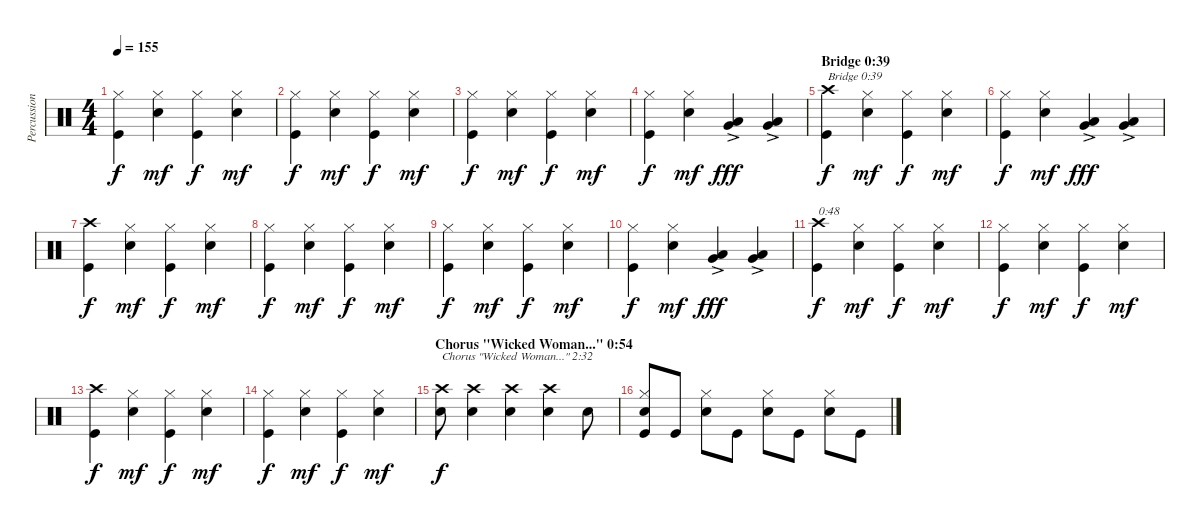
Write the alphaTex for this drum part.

\track ("Percussion" "Percussion") {instrument percussion}
\staff {score}
\articulation defaults
\ts (4 4)
\tempo 155
\clef neutral
\ks c
("Kick (hit)" "Hi-Hat (closed)").4{dy f} ("Electric Snare (hit)" "Hi-Hat (closed)").4{dy mf} ("Kick (hit)" "Hi-Hat (closed)").4{dy f} ("Electric Snare (hit)" "Hi-Hat (closed)").4{dy mf} |
("Kick (hit)" "Hi-Hat (closed)").4{dy f} ("Electric Snare (hit)" "Hi-Hat (closed)").4{dy mf} ("Kick (hit)" "Hi-Hat (closed)").4{dy f} ("Electric Snare (hit)" "Hi-Hat (closed)").4{dy mf} |
("Kick (hit)" "Hi-Hat (closed)").4{dy f} ("Electric Snare (hit)" "Hi-Hat (closed)").4{dy mf} ("Kick (hit)" "Hi-Hat (closed)").4{dy f} ("Electric Snare (hit)" "Hi-Hat (closed)").4{dy mf} |
("Kick (hit)" "Hi-Hat (closed)").4{dy f} ("Electric Snare (hit)" "Hi-Hat (closed)").4{dy mf} ("Very Low Tom (hit)"{ac} "Low Tom (hit)"{ac}).4{dy fff} ("Very Low Tom (hit)"{ac} "Low Tom (hit)"{ac}).4 |
\section ("" "Bridge 0:39")
("Kick (hit)" "Crash high (hit)").4{txt "Bridge 0:39" dy f} ("Electric Snare (hit)" "Hi-Hat (closed)").4{dy mf} ("Kick (hit)" "Hi-Hat (closed)").4{dy f} ("Electric Snare (hit)" "Hi-Hat (closed)").4{dy mf} |
("Kick (hit)" "Hi-Hat (closed)").4{dy f} ("Electric Snare (hit)" "Hi-Hat (closed)").4{dy mf} ("Very Low Tom (hit)"{ac} "Low Tom (hit)"{ac}).4{dy fff} ("Very Low Tom (hit)"{ac} "Low Tom (hit)"{ac}).4 |
("Kick (hit)" "Crash high (hit)").4{dy f} ("Electric Snare (hit)" "Hi-Hat (closed)").4{dy mf} ("Kick (hit)" "Hi-Hat (closed)").4{dy f} ("Electric Snare (hit)" "Hi-Hat (closed)").4{dy mf} |
("Kick (hit)" "Hi-Hat (closed)").4{dy f} ("Electric Snare (hit)" "Hi-Hat (closed)").4{dy mf} ("Kick (hit)" "Hi-Hat (closed)").4{dy f} ("Electric Snare (hit)" "Hi-Hat (closed)").4{dy mf} |
("Kick (hit)" "Hi-Hat (closed)").4{dy f} ("Electric Snare (hit)" "Hi-Hat (closed)").4{dy mf} ("Kick (hit)" "Hi-Hat (closed)").4{dy f} ("Electric Snare (hit)" "Hi-Hat (closed)").4{dy mf} |
("Kick (hit)" "Hi-Hat (closed)").4{dy f} ("Electric Snare (hit)" "Hi-Hat (closed)").4{dy mf} ("Very Low Tom (hit)"{ac} "Low Tom (hit)"{ac}).4{dy fff} ("Very Low Tom (hit)"{ac} "Low Tom (hit)"{ac}).4 |
("Kick (hit)" "Crash high (hit)").4{txt "0:48" dy f} ("Electric Snare (hit)" "Hi-Hat (closed)").4{dy mf} ("Kick (hit)" "Hi-Hat (closed)").4{dy f} ("Electric Snare (hit)" "Hi-Hat (closed)").4{dy mf} |
("Kick (hit)" "Hi-Hat (closed)").4{dy f} ("Electric Snare (hit)" "Hi-Hat (closed)").4{dy mf} ("Kick (hit)" "Hi-Hat (closed)").4{dy f} ("Electric Snare (hit)" "Hi-Hat (closed)").4{dy mf} |
("Kick (hit)" "Crash high (hit)").4{dy f} ("Electric Snare (hit)" "Hi-Hat (closed)").4{dy mf} ("Kick (hit)" "Hi-Hat (closed)").4{dy f} ("Electric Snare (hit)" "Hi-Hat (closed)").4{dy mf} |
("Kick (hit)" "Hi-Hat (closed)").4{dy f} ("Electric Snare (hit)" "Hi-Hat (closed)").4{dy mf} ("Kick (hit)" "Hi-Hat (closed)").4{dy f} ("Electric Snare (hit)" "Hi-Hat (closed)").4{dy mf} |
\section ("" "Chorus \"Wicked Woman...\" 0:54")
("Electric Snare (hit)" "Crash high (hit)").8{txt "Chorus \"Wicked Woman...\" 2:32" dy f} ("Electric Snare (hit)" "Crash high (hit)").4 ("Electric Snare (hit)" "Crash high (hit)").4 ("Electric Snare (hit)" "Crash high (hit)").4 "Electric Snare (hit)".8 |
("Kick (hit)" "Electric Snare (hit)" "Hi-Hat (closed)").8 "Kick (hit)".8 ("Electric Snare (hit)" "Hi-Hat (closed)").8 "Kick (hit)".8 ("Electric Snare (hit)" "Hi-Hat (closed)").8 "Kick (hit)".8 ("Electric Snare (hit)" "Hi-Hat (closed)").8 "Kick (hit)".8
